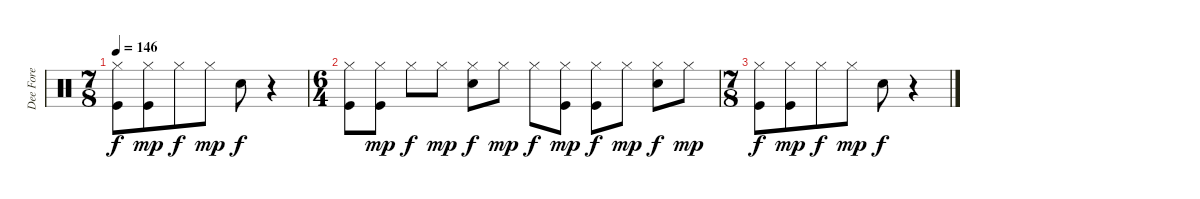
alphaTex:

\track ("Dee Fore" "Dee Fore") {instrument percussion}
\staff {score}
\articulation defaults
\ts (7 8)
\tempo 146
\clef neutral
\ks c
("Hi-Hat (closed)" "Kick (hit)").8{dy f} ("Hi-Hat (closed)" "Kick (hit)").8{dy mp} "Hi-Hat (closed)".8{dy f} "Hi-Hat (closed)".8{dy mp} "Electric Snare (hit)".8{dy f} r.4 |
\ts (6 4)
("Hi-Hat (closed)" "Kick (hit)").8 ("Hi-Hat (closed)" "Kick (hit)").8{dy mp} "Hi-Hat (closed)".8{dy f} "Hi-Hat (closed)".8{dy mp} ("Hi-Hat (closed)" "Electric Snare (hit)").8{dy f} "Hi-Hat (closed)".8{dy mp} "Hi-Hat (closed)".8{dy f} ("Hi-Hat (closed)" "Kick (hit)").8{dy mp} ("Hi-Hat (closed)" "Kick (hit)").8{dy f} "Hi-Hat (closed)".8{dy mp} ("Hi-Hat (closed)" "Electric Snare (hit)").8{dy f} "Hi-Hat (closed)".8{dy mp} |
\ts (7 8)
("Hi-Hat (closed)" "Kick (hit)").8{dy f} ("Hi-Hat (closed)" "Kick (hit)").8{dy mp} "Hi-Hat (closed)".8{dy f} "Hi-Hat (closed)".8{dy mp} "Electric Snare (hit)".8{dy f} r.4
